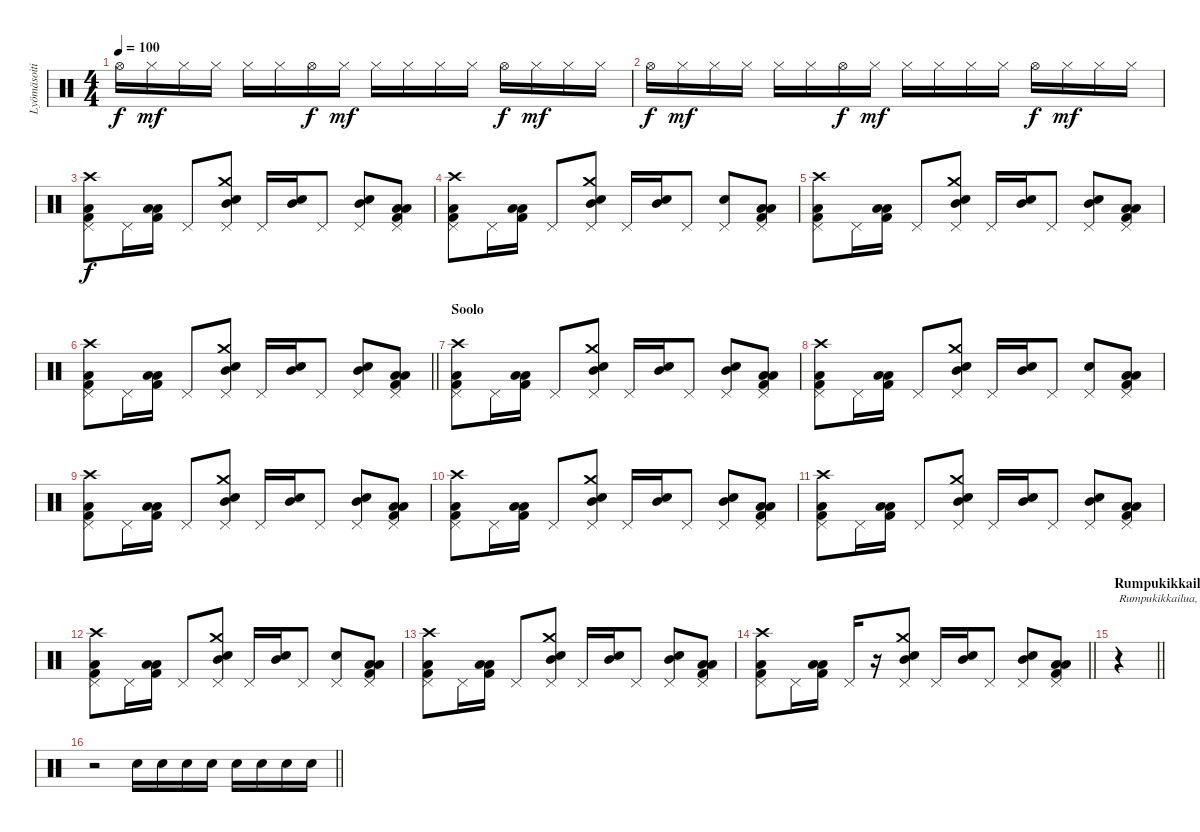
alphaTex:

\track ("Lyömäsoitin" "Lyömäsoiti") {instrument percussion}
\staff {score}
\articulation defaults
\ts (4 4)
\tempo 100
\clef neutral
\ks c "Hi-Hat (open)".16{dy f} "Hi-Hat (closed)".16{dy mf} "Hi-Hat (closed)".16 "Hi-Hat (closed)".16 "Hi-Hat (closed)".16 "Hi-Hat (closed)".16 "Hi-Hat (open)".16{dy f} "Hi-Hat (closed)".16{dy mf} "Hi-Hat (closed)".16 "Hi-Hat (closed)".16 "Hi-Hat (closed)".16 "Hi-Hat (closed)".16 "Hi-Hat (open)".16{dy f} "Hi-Hat (closed)".16{dy mf} "Hi-Hat (closed)".16 "Hi-Hat (closed)".16
|
"Hi-Hat (open)".16{dy f} "Hi-Hat (closed)".16{dy mf} "Hi-Hat (closed)".16 "Hi-Hat (closed)".16 "Hi-Hat (closed)".16 "Hi-Hat (closed)".16 "Hi-Hat (open)".16{dy f} "Hi-Hat (closed)".16{dy mf} "Hi-Hat (closed)".16 "Hi-Hat (closed)".16 "Hi-Hat (closed)".16 "Hi-Hat (closed)".16 "Hi-Hat (open)".16{dy f} "Hi-Hat (closed)".16{dy mf} "Hi-Hat (closed)".16 "Hi-Hat (closed)".16 |
("Crash high (hit)" "Pedal Hi-Hat (hit)" "Low Floor Tom (hit)" "Kick (hit) 2").8{dy f} "Pedal Hi-Hat (hit)".16 ("Low Floor Tom (hit)" "Low Floor Tom (hit)" "Kick (hit) 2").16 "Pedal Hi-Hat (hit)".8 ("Pedal Hi-Hat (hit)" "Crash medium (hit)" "Mid Tom (hit)" "Snare (hit) 2").8 "Pedal Hi-Hat (hit)".16 ("Mid Tom (hit)" "Snare (hit) 2").16 "Pedal Hi-Hat (hit)".8 ("Pedal Hi-Hat (hit)" "Mid Tom (hit)" "Snare (hit) 2").8 ("Pedal Hi-Hat (hit)" "Low Floor Tom (hit)" "Low Floor Tom (hit)" "Kick (hit) 2").8 |
("Crash high (hit)" "Pedal Hi-Hat (hit)" "Low Floor Tom (hit)" "Kick (hit) 2").8 "Pedal Hi-Hat (hit)".16 ("Low Floor Tom (hit)" "Low Floor Tom (hit)" "Kick (hit) 2").16 "Pedal Hi-Hat (hit)".8 ("Pedal Hi-Hat (hit)" "Crash medium (hit)" "Mid Tom (hit)" "Snare (hit) 2").8 "Pedal Hi-Hat (hit)".16 ("Mid Tom (hit)" "Snare (hit) 2").16 "Pedal Hi-Hat (hit)".8 ("Pedal Hi-Hat (hit)" "Snare (hit) 2").8 ("Pedal Hi-Hat (hit)" "Low Floor Tom (hit)" "Low Floor Tom (hit)" "Kick (hit) 2").8 |
("Crash high (hit)" "Pedal Hi-Hat (hit)" "Low Floor Tom (hit)" "Kick (hit) 2").8 "Pedal Hi-Hat (hit)".16 ("Low Floor Tom (hit)" "Low Floor Tom (hit)" "Kick (hit) 2").16 "Pedal Hi-Hat (hit)".8 ("Pedal Hi-Hat (hit)" "Crash medium (hit)" "Mid Tom (hit)" "Snare (hit) 2").8 "Pedal Hi-Hat (hit)".16 ("Mid Tom (hit)" "Snare (hit) 2").16 "Pedal Hi-Hat (hit)".8 ("Pedal Hi-Hat (hit)" "Mid Tom (hit)" "Snare (hit) 2").8 ("Pedal Hi-Hat (hit)" "Low Floor Tom (hit)" "Low Floor Tom (hit)" "Kick (hit) 2").8 |
\barLineRight lightlight
("Crash high (hit)" "Pedal Hi-Hat (hit)" "Low Floor Tom (hit)" "Kick (hit) 2").8 "Pedal Hi-Hat (hit)".16 ("Low Floor Tom (hit)" "Low Floor Tom (hit)" "Kick (hit) 2").16 "Pedal Hi-Hat (hit)".8 ("Pedal Hi-Hat (hit)" "Crash medium (hit)" "Mid Tom (hit)" "Snare (hit) 2").8 "Pedal Hi-Hat (hit)".16 ("Mid Tom (hit)" "Snare (hit) 2").16 "Pedal Hi-Hat (hit)".8 ("Pedal Hi-Hat (hit)" "Mid Tom (hit)" "Snare (hit) 2").8 ("Pedal Hi-Hat (hit)" "Low Floor Tom (hit)" "Low Floor Tom (hit)" "Kick (hit) 2").8 |
\section ("" "Soolo")
("Crash high (hit)" "Pedal Hi-Hat (hit)" "Low Floor Tom (hit)" "Kick (hit) 2").8 "Pedal Hi-Hat (hit)".16 ("Low Floor Tom (hit)" "Low Floor Tom (hit)" "Kick (hit) 2").16 "Pedal Hi-Hat (hit)".8 ("Pedal Hi-Hat (hit)" "Crash medium (hit)" "Mid Tom (hit)" "Snare (hit) 2").8 "Pedal Hi-Hat (hit)".16 ("Mid Tom (hit)" "Snare (hit) 2").16 "Pedal Hi-Hat (hit)".8 ("Pedal Hi-Hat (hit)" "Mid Tom (hit)" "Snare (hit) 2").8 ("Pedal Hi-Hat (hit)" "Low Floor Tom (hit)" "Low Floor Tom (hit)" "Kick (hit) 2").8 |
("Crash high (hit)" "Pedal Hi-Hat (hit)" "Low Floor Tom (hit)" "Kick (hit) 2").8 "Pedal Hi-Hat (hit)".16 ("Low Floor Tom (hit)" "Low Floor Tom (hit)" "Kick (hit) 2").16 "Pedal Hi-Hat (hit)".8 ("Pedal Hi-Hat (hit)" "Crash medium (hit)" "Mid Tom (hit)" "Snare (hit) 2").8 "Pedal Hi-Hat (hit)".16 ("Mid Tom (hit)" "Snare (hit) 2").16 "Pedal Hi-Hat (hit)".8 ("Pedal Hi-Hat (hit)" "Snare (hit) 2").8 ("Pedal Hi-Hat (hit)" "Low Floor Tom (hit)" "Low Floor Tom (hit)" "Kick (hit) 2").8 |
("Crash high (hit)" "Pedal Hi-Hat (hit)" "Low Floor Tom (hit)" "Kick (hit) 2").8 "Pedal Hi-Hat (hit)".16 ("Low Floor Tom (hit)" "Low Floor Tom (hit)" "Kick (hit) 2").16 "Pedal Hi-Hat (hit)".8 ("Pedal Hi-Hat (hit)" "Crash medium (hit)" "Mid Tom (hit)" "Snare (hit) 2").8 "Pedal Hi-Hat (hit)".16 ("Mid Tom (hit)" "Snare (hit) 2").16 "Pedal Hi-Hat (hit)".8 ("Pedal Hi-Hat (hit)" "Mid Tom (hit)" "Snare (hit) 2").8 ("Pedal Hi-Hat (hit)" "Low Floor Tom (hit)" "Low Floor Tom (hit)" "Kick (hit) 2").8 |
("Crash high (hit)" "Pedal Hi-Hat (hit)" "Low Floor Tom (hit)" "Kick (hit) 2").8 "Pedal Hi-Hat (hit)".16 ("Low Floor Tom (hit)" "Low Floor Tom (hit)" "Kick (hit) 2").16 "Pedal Hi-Hat (hit)".8 ("Pedal Hi-Hat (hit)" "Crash medium (hit)" "Mid Tom (hit)" "Snare (hit) 2").8 "Pedal Hi-Hat (hit)".16 ("Mid Tom (hit)" "Snare (hit) 2").16 "Pedal Hi-Hat (hit)".8 ("Pedal Hi-Hat (hit)" "Mid Tom (hit)" "Snare (hit) 2").8 ("Pedal Hi-Hat (hit)" "Low Floor Tom (hit)" "Low Floor Tom (hit)" "Kick (hit) 2").8 |
("Crash high (hit)" "Pedal Hi-Hat (hit)" "Low Floor Tom (hit)" "Kick (hit) 2").8 "Pedal Hi-Hat (hit)".16 ("Low Floor Tom (hit)" "Low Floor Tom (hit)" "Kick (hit) 2").16 "Pedal Hi-Hat (hit)".8 ("Pedal Hi-Hat (hit)" "Crash medium (hit)" "Mid Tom (hit)" "Snare (hit) 2").8 "Pedal Hi-Hat (hit)".16 ("Mid Tom (hit)" "Snare (hit) 2").16 "Pedal Hi-Hat (hit)".8 ("Pedal Hi-Hat (hit)" "Mid Tom (hit)" "Snare (hit) 2").8 ("Pedal Hi-Hat (hit)" "Low Floor Tom (hit)" "Low Floor Tom (hit)" "Kick (hit) 2").8 |
("Crash high (hit)" "Pedal Hi-Hat (hit)" "Low Floor Tom (hit)" "Kick (hit) 2").8 "Pedal Hi-Hat (hit)".16 ("Low Floor Tom (hit)" "Low Floor Tom (hit)" "Kick (hit) 2").16 "Pedal Hi-Hat (hit)".8 ("Pedal Hi-Hat (hit)" "Crash medium (hit)" "Mid Tom (hit)" "Snare (hit) 2").8 "Pedal Hi-Hat (hit)".16 ("Mid Tom (hit)" "Snare (hit) 2").16 "Pedal Hi-Hat (hit)".8 ("Pedal Hi-Hat (hit)" "Snare (hit) 2").8 ("Pedal Hi-Hat (hit)" "Low Floor Tom (hit)" "Low Floor Tom (hit)" "Kick (hit) 2").8 |
("Crash high (hit)" "Pedal Hi-Hat (hit)" "Low Floor Tom (hit)" "Kick (hit) 2").8 "Pedal Hi-Hat (hit)".16 ("Low Floor Tom (hit)" "Low Floor Tom (hit)" "Kick (hit) 2").16 "Pedal Hi-Hat (hit)".8 ("Pedal Hi-Hat (hit)" "Crash medium (hit)" "Mid Tom (hit)" "Snare (hit) 2").8 "Pedal Hi-Hat (hit)".16 ("Mid Tom (hit)" "Snare (hit) 2").16 "Pedal Hi-Hat (hit)".8 ("Pedal Hi-Hat (hit)" "Mid Tom (hit)" "Snare (hit) 2").8 ("Pedal Hi-Hat (hit)" "Low Floor Tom (hit)" "Low Floor Tom (hit)" "Kick (hit) 2").8 |
\barLineRight lightlight
("Crash high (hit)" "Pedal Hi-Hat (hit)" "Low Floor Tom (hit)" "Kick (hit) 2").8 "Pedal Hi-Hat (hit)".16 ("Low Floor Tom (hit)" "Low Floor Tom (hit)" "Kick (hit) 2").16 "Pedal Hi-Hat (hit)".16 r.16 ("Pedal Hi-Hat (hit)" "Crash medium (hit)" "Mid Tom (hit)" "Snare (hit) 2").8 "Pedal Hi-Hat (hit)".16 ("Mid Tom (hit)" "Snare (hit) 2").16 "Pedal Hi-Hat (hit)".8 ("Pedal Hi-Hat (hit)" "Mid Tom (hit)" "Snare (hit) 2").8 ("Pedal Hi-Hat (hit)" "Low Floor Tom (hit)" "Low Floor Tom (hit)" "Kick (hit) 2").8 |
\section ("" "Rumpukikkailua")
\barLineRight lightlight
r.4{txt "Rumpukikkailua, kehittele jotta :P 1 tai 2 tahtia"} |
\barLineRight lightlight
r.2 "Snare (hit) 2".16 "Snare (hit) 2".16 "Snare (hit) 2".16 "Snare (hit) 2".16 "Snare (hit) 2".16 "Snare (hit) 2".16 "Snare (hit) 2".16 "Snare (hit) 2".16
